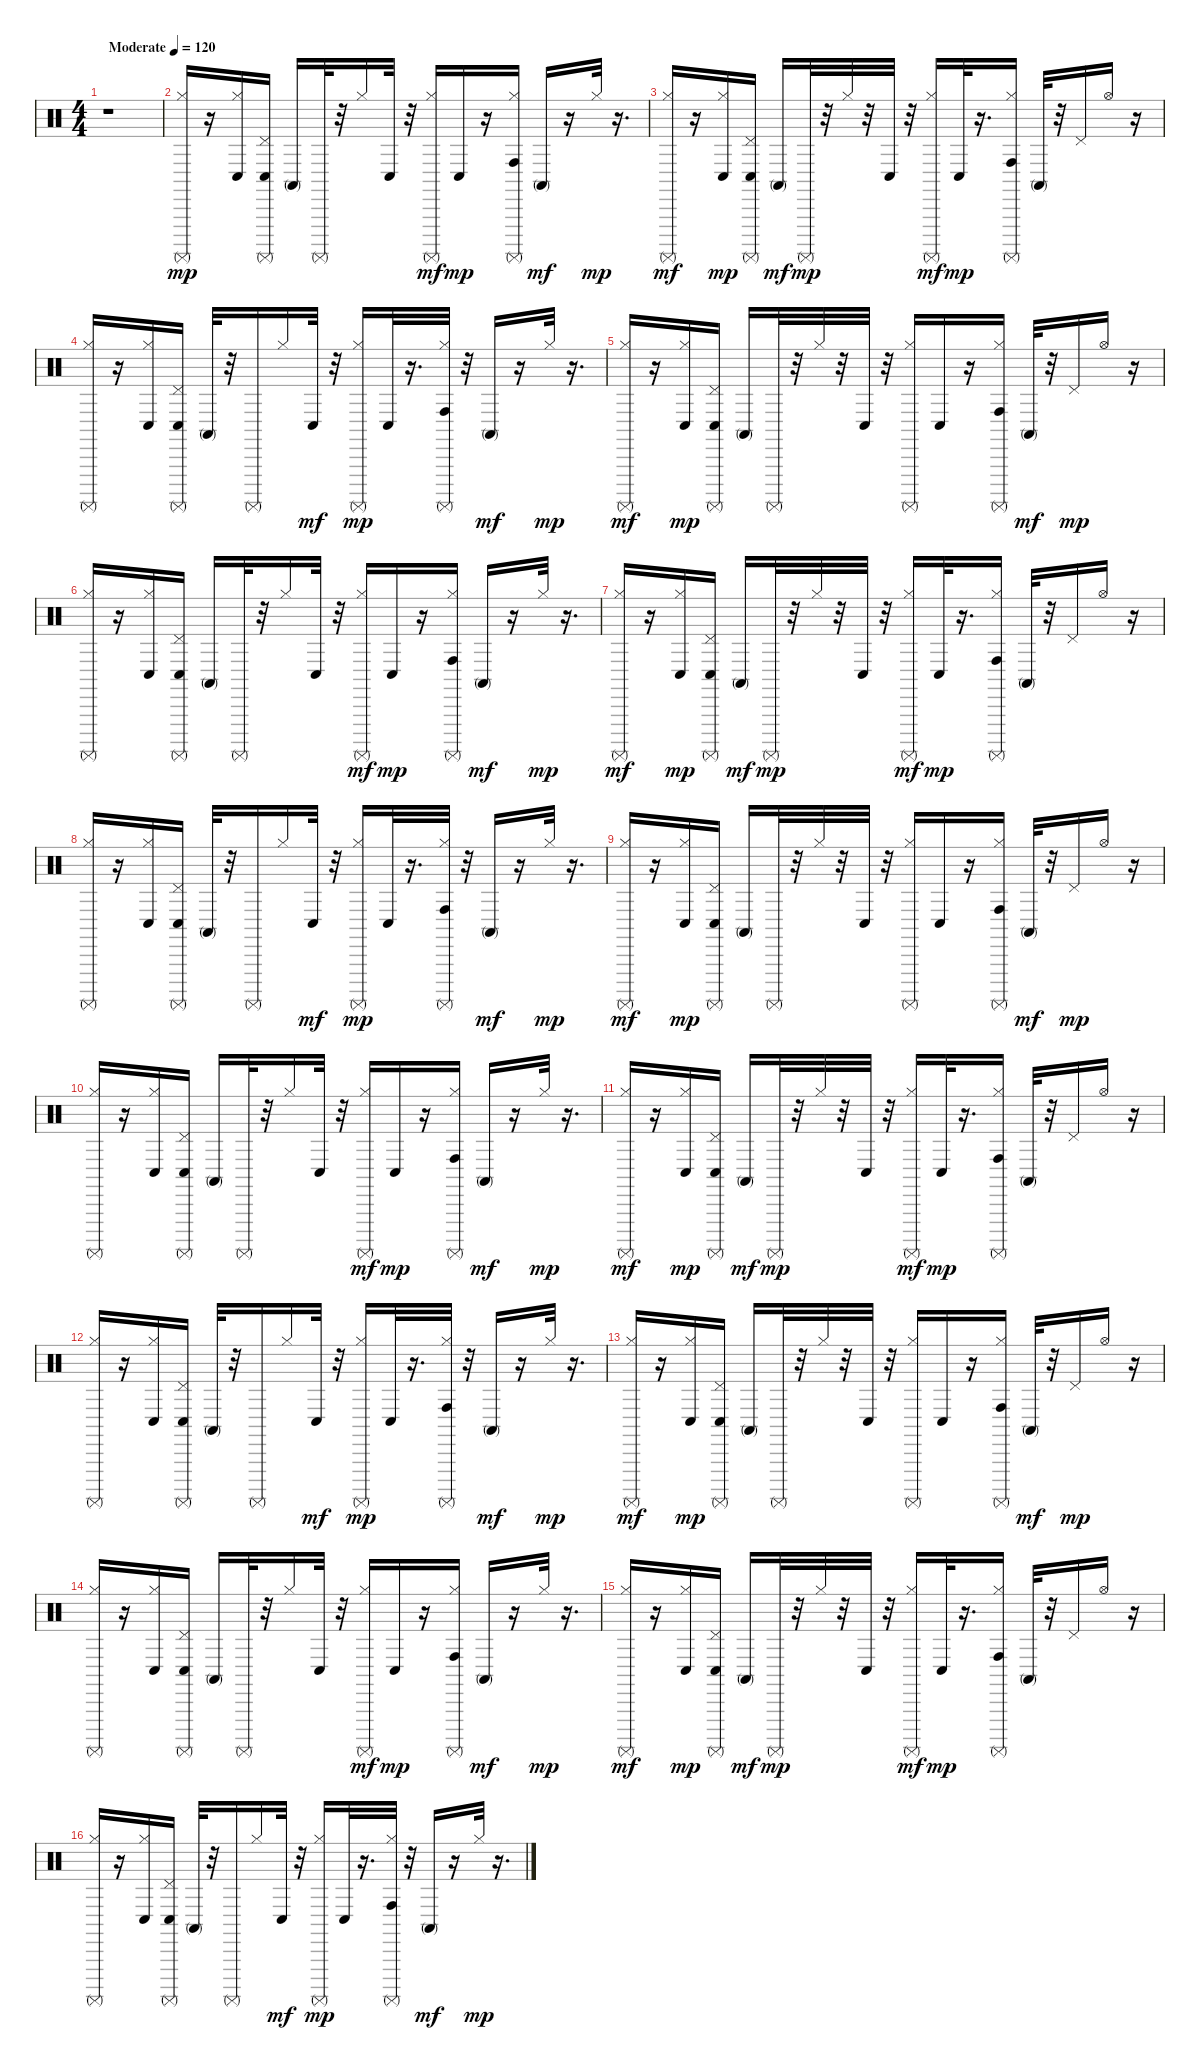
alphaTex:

\track "" {instrument percussion}
\staff {score}
\articulation defaults
\ts (4 4)
\tempo (120 "Moderate")
\clef neutral
\ks c
r.1{dy mp} |
("Surdo (mute)" "Hi-Hat (closed)").16 r.16 ("Conga low (hit)" "Hi-Hat (closed)").16 ("Pedal Hi-Hat (hit)" "Surdo (mute)" "Conga low (hit)").16 "Conga high (mute)".16 "Surdo (mute)".32 r.32 "Hi-Hat (closed)".16 "Conga low (hit)".32 r.32 ("Hi-Hat (closed)" "Surdo (mute)").16{dy mf} "Conga low (hit)".16{dy mp} r.16 ("Hi-Hat (closed)" "Surdo (mute)" "Conga high (hit)").16 "Conga high (mute)".16{dy mf} r.16 "Hi-Hat (closed)".32{dy mp} r.16{d} |
("Surdo (mute)" "Hi-Hat (closed)").16{dy mf} r.16 ("Conga low (hit)" "Hi-Hat (closed)").16{dy mp} ("Conga low (hit)" "Pedal Hi-Hat (hit)" "Surdo (mute)").16 "Conga high (mute)".16{dy mf} "Surdo (mute)".32{dy mp} r.32 "Hi-Hat (closed)".32 r.32 "Conga low (hit)".32 r.32 ("Hi-Hat (closed)" "Surdo (mute)").16{dy mf} "Conga low (hit)".32{dy mp} r.16{d} ("Surdo (mute)" "Hi-Hat (closed)" "Conga high (hit)").16 "Conga high (mute)".32 r.32 "Pedal Hi-Hat (hit)".16 "Hi-Hat (open)".16 r.16 |
("Surdo (mute)" "Hi-Hat (closed)").16 r.16 ("Conga low (hit)" "Hi-Hat (closed)").16 ("Conga low (hit)" "Pedal Hi-Hat (hit)" "Surdo (mute)").16 "Conga high (mute)".32 r.32 "Surdo (mute)".16 "Hi-Hat (closed)".16 "Conga low (hit)".32{dy mf} r.32 ("Hi-Hat (closed)" "Surdo (mute)").16{dy mp} "Conga low (hit)".32 r.16{d} ("Hi-Hat (closed)" "Surdo (mute)" "Conga high (hit)").32 r.32 "Conga high (mute)".16{dy mf} r.16 "Hi-Hat (closed)".32{dy mp} r.16{d} |
("Surdo (mute)" "Hi-Hat (closed)").16{dy mf} r.16 ("Conga low (hit)" "Hi-Hat (closed)").16{dy mp} ("Conga low (hit)" "Surdo (mute)" "Pedal Hi-Hat (hit)").16 "Conga high (mute)".16 "Surdo (mute)".32 r.32 "Hi-Hat (closed)".32 r.32 "Conga low (hit)".32 r.32 ("Hi-Hat (closed)" "Surdo (mute)").16 "Conga low (hit)".16 r.16 ("Conga high (hit)" "Surdo (mute)" "Hi-Hat (closed)").16 "Conga high (mute)".32{dy mf} r.32 "Pedal Hi-Hat (hit)".16{dy mp} "Hi-Hat (open)".16 r.16 |
("Surdo (mute)" "Hi-Hat (closed)").16 r.16 ("Conga low (hit)" "Hi-Hat (closed)").16 ("Pedal Hi-Hat (hit)" "Surdo (mute)" "Conga low (hit)").16 "Conga high (mute)".16 "Surdo (mute)".32 r.32 "Hi-Hat (closed)".16 "Conga low (hit)".32 r.32 ("Hi-Hat (closed)" "Surdo (mute)").16{dy mf} "Conga low (hit)".16{dy mp} r.16 ("Hi-Hat (closed)" "Surdo (mute)" "Conga high (hit)").16 "Conga high (mute)".16{dy mf} r.16 "Hi-Hat (closed)".32{dy mp} r.16{d} |
("Surdo (mute)" "Hi-Hat (closed)").16{dy mf} r.16 ("Conga low (hit)" "Hi-Hat (closed)").16{dy mp} ("Conga low (hit)" "Pedal Hi-Hat (hit)" "Surdo (mute)").16 "Conga high (mute)".16{dy mf} "Surdo (mute)".32{dy mp} r.32 "Hi-Hat (closed)".32 r.32 "Conga low (hit)".32 r.32 ("Hi-Hat (closed)" "Surdo (mute)").16{dy mf} "Conga low (hit)".32{dy mp} r.16{d} ("Surdo (mute)" "Hi-Hat (closed)" "Conga high (hit)").16 "Conga high (mute)".32 r.32 "Pedal Hi-Hat (hit)".16 "Hi-Hat (open)".16 r.16 |
("Surdo (mute)" "Hi-Hat (closed)").16 r.16 ("Conga low (hit)" "Hi-Hat (closed)").16 ("Conga low (hit)" "Pedal Hi-Hat (hit)" "Surdo (mute)").16 "Conga high (mute)".32 r.32 "Surdo (mute)".16 "Hi-Hat (closed)".16 "Conga low (hit)".32{dy mf} r.32 ("Hi-Hat (closed)" "Surdo (mute)").16{dy mp} "Conga low (hit)".32 r.16{d} ("Hi-Hat (closed)" "Surdo (mute)" "Conga high (hit)").32 r.32 "Conga high (mute)".16{dy mf} r.16 "Hi-Hat (closed)".32{dy mp} r.16{d} |
("Surdo (mute)" "Hi-Hat (closed)").16{dy mf} r.16 ("Conga low (hit)" "Hi-Hat (closed)").16{dy mp} ("Conga low (hit)" "Surdo (mute)" "Pedal Hi-Hat (hit)").16 "Conga high (mute)".16 "Surdo (mute)".32 r.32 "Hi-Hat (closed)".32 r.32 "Conga low (hit)".32 r.32 ("Hi-Hat (closed)" "Surdo (mute)").16 "Conga low (hit)".16 r.16 ("Conga high (hit)" "Surdo (mute)" "Hi-Hat (closed)").16 "Conga high (mute)".32{dy mf} r.32 "Pedal Hi-Hat (hit)".16{dy mp} "Hi-Hat (open)".16 r.16 |
("Surdo (mute)" "Hi-Hat (closed)").16 r.16 ("Conga low (hit)" "Hi-Hat (closed)").16 ("Pedal Hi-Hat (hit)" "Surdo (mute)" "Conga low (hit)").16 "Conga high (mute)".16 "Surdo (mute)".32 r.32 "Hi-Hat (closed)".16 "Conga low (hit)".32 r.32 ("Hi-Hat (closed)" "Surdo (mute)").16{dy mf} "Conga low (hit)".16{dy mp} r.16 ("Hi-Hat (closed)" "Surdo (mute)" "Conga high (hit)").16 "Conga high (mute)".16{dy mf} r.16 "Hi-Hat (closed)".32{dy mp} r.16{d} |
("Surdo (mute)" "Hi-Hat (closed)").16{dy mf} r.16 ("Conga low (hit)" "Hi-Hat (closed)").16{dy mp} ("Conga low (hit)" "Pedal Hi-Hat (hit)" "Surdo (mute)").16 "Conga high (mute)".16{dy mf} "Surdo (mute)".32{dy mp} r.32 "Hi-Hat (closed)".32 r.32 "Conga low (hit)".32 r.32 ("Hi-Hat (closed)" "Surdo (mute)").16{dy mf} "Conga low (hit)".32{dy mp} r.16{d} ("Surdo (mute)" "Hi-Hat (closed)" "Conga high (hit)").16 "Conga high (mute)".32 r.32 "Pedal Hi-Hat (hit)".16 "Hi-Hat (open)".16 r.16 |
("Surdo (mute)" "Hi-Hat (closed)").16 r.16 ("Conga low (hit)" "Hi-Hat (closed)").16 ("Conga low (hit)" "Pedal Hi-Hat (hit)" "Surdo (mute)").16 "Conga high (mute)".32 r.32 "Surdo (mute)".16 "Hi-Hat (closed)".16 "Conga low (hit)".32{dy mf} r.32 ("Hi-Hat (closed)" "Surdo (mute)").16{dy mp} "Conga low (hit)".32 r.16{d} ("Hi-Hat (closed)" "Surdo (mute)" "Conga high (hit)").32 r.32 "Conga high (mute)".16{dy mf} r.16 "Hi-Hat (closed)".32{dy mp} r.16{d} |
("Surdo (mute)" "Hi-Hat (closed)").16{dy mf} r.16 ("Conga low (hit)" "Hi-Hat (closed)").16{dy mp} ("Conga low (hit)" "Surdo (mute)" "Pedal Hi-Hat (hit)").16 "Conga high (mute)".16 "Surdo (mute)".32 r.32 "Hi-Hat (closed)".32 r.32 "Conga low (hit)".32 r.32 ("Hi-Hat (closed)" "Surdo (mute)").16 "Conga low (hit)".16 r.16 ("Conga high (hit)" "Surdo (mute)" "Hi-Hat (closed)").16 "Conga high (mute)".32{dy mf} r.32 "Pedal Hi-Hat (hit)".16{dy mp} "Hi-Hat (open)".16 r.16 |
("Surdo (mute)" "Hi-Hat (closed)").16 r.16 ("Conga low (hit)" "Hi-Hat (closed)").16 ("Pedal Hi-Hat (hit)" "Surdo (mute)" "Conga low (hit)").16 "Conga high (mute)".16 "Surdo (mute)".32 r.32 "Hi-Hat (closed)".16 "Conga low (hit)".32 r.32 ("Hi-Hat (closed)" "Surdo (mute)").16{dy mf} "Conga low (hit)".16{dy mp} r.16 ("Hi-Hat (closed)" "Surdo (mute)" "Conga high (hit)").16 "Conga high (mute)".16{dy mf} r.16 "Hi-Hat (closed)".32{dy mp} r.16{d} |
("Surdo (mute)" "Hi-Hat (closed)").16{dy mf} r.16 ("Conga low (hit)" "Hi-Hat (closed)").16{dy mp} ("Conga low (hit)" "Pedal Hi-Hat (hit)" "Surdo (mute)").16 "Conga high (mute)".16{dy mf} "Surdo (mute)".32{dy mp} r.32 "Hi-Hat (closed)".32 r.32 "Conga low (hit)".32 r.32 ("Hi-Hat (closed)" "Surdo (mute)").16{dy mf} "Conga low (hit)".32{dy mp} r.16{d} ("Surdo (mute)" "Hi-Hat (closed)" "Conga high (hit)").16 "Conga high (mute)".32 r.32 "Pedal Hi-Hat (hit)".16 "Hi-Hat (open)".16 r.16 |
("Surdo (mute)" "Hi-Hat (closed)").16 r.16 ("Conga low (hit)" "Hi-Hat (closed)").16 ("Conga low (hit)" "Pedal Hi-Hat (hit)" "Surdo (mute)").16 "Conga high (mute)".32 r.32 "Surdo (mute)".16 "Hi-Hat (closed)".16 "Conga low (hit)".32{dy mf} r.32 ("Hi-Hat (closed)" "Surdo (mute)").16{dy mp} "Conga low (hit)".32 r.16{d} ("Hi-Hat (closed)" "Surdo (mute)" "Conga high (hit)").32 r.32 "Conga high (mute)".16{dy mf} r.16 "Hi-Hat (closed)".32{dy mp} r.16{d}
